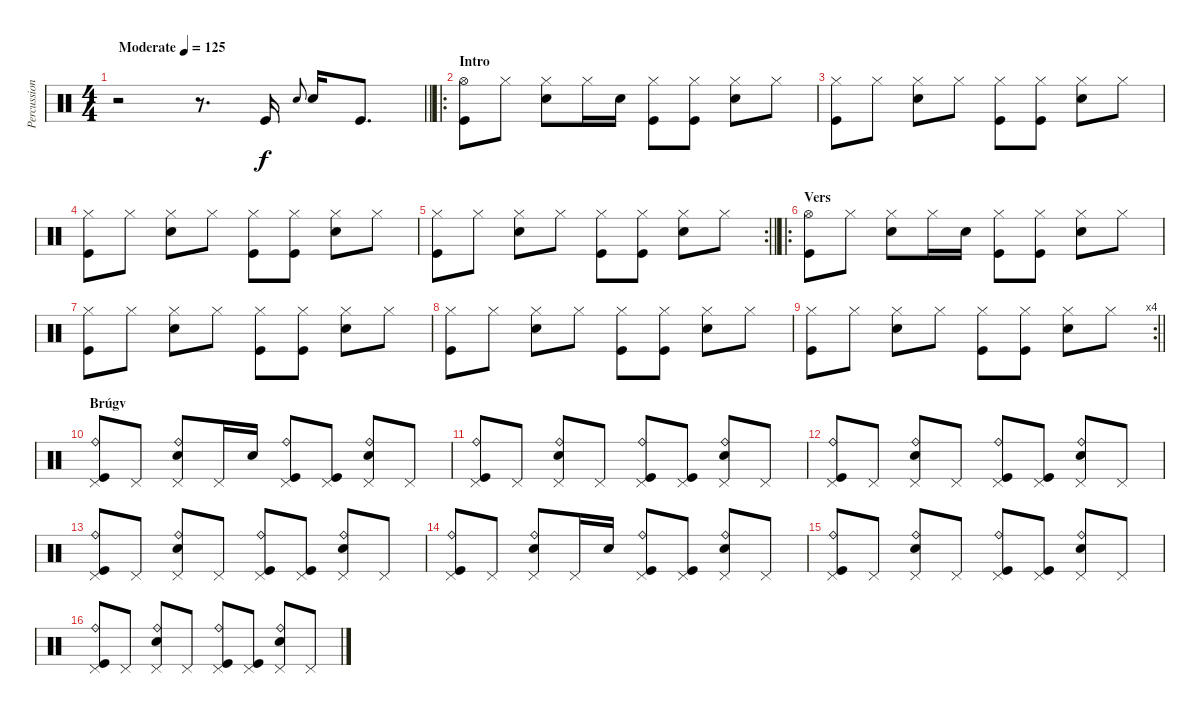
\track ("Percussion" "Percussion") {instrument percussion}
\staff {score}
\articulation defaults
\ts (4 4)
\tempo (125 "Moderate")
\clef neutral
\barLineRight lightlight
\ks c
r.2{dy f} r.8{d} "Kick (hit)".16 "Electric Snare (hit)".8{gr onbeat} "Electric Snare (hit)".16 "Kick (hit)".8{d} |
\ro
\section ("" "Intro")
("Hi-Hat (open)" "Kick (hit)").8 "Hi-Hat (closed)".8 ("Electric Snare (hit)" "Hi-Hat (closed)").8 "Hi-Hat (closed)".16 "Electric Snare (hit)".16 ("Hi-Hat (closed)" "Kick (hit)").8 ("Hi-Hat (closed)" "Kick (hit)").8 ("Electric Snare (hit)" "Hi-Hat (closed)").8 "Hi-Hat (closed)".8 |
("Hi-Hat (closed)" "Kick (hit)").8 "Hi-Hat (closed)".8 ("Electric Snare (hit)" "Hi-Hat (closed)").8 "Hi-Hat (closed)".8 ("Hi-Hat (closed)" "Kick (hit)").8 ("Hi-Hat (closed)" "Kick (hit)").8 ("Electric Snare (hit)" "Hi-Hat (closed)").8 "Hi-Hat (closed)".8 |
("Hi-Hat (closed)" "Kick (hit)").8 "Hi-Hat (closed)".8 ("Electric Snare (hit)" "Hi-Hat (closed)").8 "Hi-Hat (closed)".8 ("Hi-Hat (closed)" "Kick (hit)").8 ("Hi-Hat (closed)" "Kick (hit)").8 ("Electric Snare (hit)" "Hi-Hat (closed)").8 "Hi-Hat (closed)".8 |
\rc 2
\barLineRight lightlight
("Hi-Hat (closed)" "Kick (hit)").8 "Hi-Hat (closed)".8 ("Electric Snare (hit)" "Hi-Hat (closed)").8 "Hi-Hat (closed)".8 ("Hi-Hat (closed)" "Kick (hit)").8 ("Hi-Hat (closed)" "Kick (hit)").8 ("Electric Snare (hit)" "Hi-Hat (closed)").8 "Hi-Hat (closed)".8 |
\ro
\section ("" "Vers")
("Hi-Hat (open)" "Kick (hit)").8 "Hi-Hat (closed)".8 ("Electric Snare (hit)" "Hi-Hat (closed)").8 "Hi-Hat (closed)".16 "Electric Snare (hit)".16 ("Hi-Hat (closed)" "Kick (hit)").8 ("Hi-Hat (closed)" "Kick (hit)").8 ("Electric Snare (hit)" "Hi-Hat (closed)").8 "Hi-Hat (closed)".8 |
("Hi-Hat (closed)" "Kick (hit)").8 "Hi-Hat (closed)".8 ("Electric Snare (hit)" "Hi-Hat (closed)").8 "Hi-Hat (closed)".8 ("Hi-Hat (closed)" "Kick (hit)").8 ("Hi-Hat (closed)" "Kick (hit)").8 ("Electric Snare (hit)" "Hi-Hat (closed)").8 "Hi-Hat (closed)".8 |
("Hi-Hat (closed)" "Kick (hit)").8 "Hi-Hat (closed)".8 ("Electric Snare (hit)" "Hi-Hat (closed)").8 "Hi-Hat (closed)".8 ("Hi-Hat (closed)" "Kick (hit)").8 ("Hi-Hat (closed)" "Kick (hit)").8 ("Electric Snare (hit)" "Hi-Hat (closed)").8 "Hi-Hat (closed)".8 |
\rc 4
\barLineRight lightlight
("Hi-Hat (closed)" "Kick (hit)").8 "Hi-Hat (closed)".8 ("Electric Snare (hit)" "Hi-Hat (closed)").8 "Hi-Hat (closed)".8 ("Hi-Hat (closed)" "Kick (hit)").8 ("Hi-Hat (closed)" "Kick (hit)").8 ("Electric Snare (hit)" "Hi-Hat (closed)").8 "Hi-Hat (closed)".8 |
\section ("" "Brúgv")
("Ride (bell)" "Pedal Hi-Hat (hit)" "Kick (hit)").8 "Pedal Hi-Hat (hit)".8 ("Ride (bell)" "Electric Snare (hit)" "Pedal Hi-Hat (hit)").8 "Pedal Hi-Hat (hit)".16 "Electric Snare (hit)".16 ("Ride (bell)" "Pedal Hi-Hat (hit)" "Kick (hit)").8 ("Pedal Hi-Hat (hit)" "Kick (hit)").8 ("Ride (bell)" "Electric Snare (hit)" "Pedal Hi-Hat (hit)").8 "Pedal Hi-Hat (hit)".8 |
("Ride (bell)" "Pedal Hi-Hat (hit)" "Kick (hit)").8 "Pedal Hi-Hat (hit)".8 ("Ride (bell)" "Electric Snare (hit)" "Pedal Hi-Hat (hit)").8 "Pedal Hi-Hat (hit)".8 ("Ride (bell)" "Pedal Hi-Hat (hit)" "Kick (hit)").8 ("Pedal Hi-Hat (hit)" "Kick (hit)").8 ("Ride (bell)" "Electric Snare (hit)" "Pedal Hi-Hat (hit)").8 "Pedal Hi-Hat (hit)".8 |
("Ride (bell)" "Pedal Hi-Hat (hit)" "Kick (hit)").8 "Pedal Hi-Hat (hit)".8 ("Ride (bell)" "Electric Snare (hit)" "Pedal Hi-Hat (hit)").8 "Pedal Hi-Hat (hit)".8 ("Ride (bell)" "Pedal Hi-Hat (hit)" "Kick (hit)").8 ("Pedal Hi-Hat (hit)" "Kick (hit)").8 ("Ride (bell)" "Electric Snare (hit)" "Pedal Hi-Hat (hit)").8 "Pedal Hi-Hat (hit)".8 |
("Ride (bell)" "Pedal Hi-Hat (hit)" "Kick (hit)").8 "Pedal Hi-Hat (hit)".8 ("Ride (bell)" "Electric Snare (hit)" "Pedal Hi-Hat (hit)").8 "Pedal Hi-Hat (hit)".8 ("Ride (bell)" "Pedal Hi-Hat (hit)" "Kick (hit)").8 ("Pedal Hi-Hat (hit)" "Kick (hit)").8 ("Ride (bell)" "Electric Snare (hit)" "Pedal Hi-Hat (hit)").8 "Pedal Hi-Hat (hit)".8 |
("Ride (bell)" "Pedal Hi-Hat (hit)" "Kick (hit)").8 "Pedal Hi-Hat (hit)".8 ("Ride (bell)" "Electric Snare (hit)" "Pedal Hi-Hat (hit)").8 "Pedal Hi-Hat (hit)".16 "Electric Snare (hit)".16 ("Ride (bell)" "Pedal Hi-Hat (hit)" "Kick (hit)").8 ("Pedal Hi-Hat (hit)" "Kick (hit)").8 ("Ride (bell)" "Electric Snare (hit)" "Pedal Hi-Hat (hit)").8 "Pedal Hi-Hat (hit)".8 |
("Ride (bell)" "Pedal Hi-Hat (hit)" "Kick (hit)").8 "Pedal Hi-Hat (hit)".8 ("Ride (bell)" "Electric Snare (hit)" "Pedal Hi-Hat (hit)").8 "Pedal Hi-Hat (hit)".8 ("Ride (bell)" "Pedal Hi-Hat (hit)" "Kick (hit)").8 ("Pedal Hi-Hat (hit)" "Kick (hit)").8 ("Ride (bell)" "Electric Snare (hit)" "Pedal Hi-Hat (hit)").8 "Pedal Hi-Hat (hit)".8 |
("Ride (bell)" "Pedal Hi-Hat (hit)" "Kick (hit)").8 "Pedal Hi-Hat (hit)".8 ("Ride (bell)" "Electric Snare (hit)" "Pedal Hi-Hat (hit)").8 "Pedal Hi-Hat (hit)".8 ("Ride (bell)" "Pedal Hi-Hat (hit)" "Kick (hit)").8 ("Pedal Hi-Hat (hit)" "Kick (hit)").8 ("Ride (bell)" "Electric Snare (hit)" "Pedal Hi-Hat (hit)").8 "Pedal Hi-Hat (hit)".8
